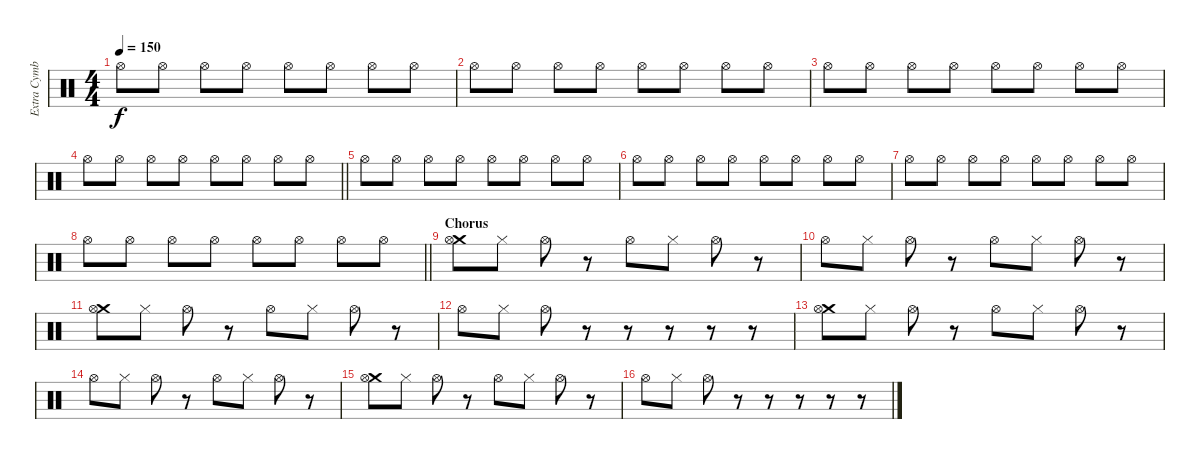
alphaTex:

\track ("Extra Cymbals" "Extra Cymb") {instrument percussion bank 255}
\staff {score}
\articulation defaults
\ts (4 4)
\tempo 150
\clef neutral
\ks c "Hi-Hat (open)".8{dy f} "Hi-Hat (open)".8 "Hi-Hat (open)".8 "Hi-Hat (open)".8 "Hi-Hat (open)".8 "Hi-Hat (open)".8 "Hi-Hat (open)".8 "Hi-Hat (open)".8
|
"Hi-Hat (open)".8 "Hi-Hat (open)".8 "Hi-Hat (open)".8 "Hi-Hat (open)".8 "Hi-Hat (open)".8 "Hi-Hat (open)".8 "Hi-Hat (open)".8 "Hi-Hat (open)".8 |
"Hi-Hat (open)".8 "Hi-Hat (open)".8 "Hi-Hat (open)".8 "Hi-Hat (open)".8 "Hi-Hat (open)".8 "Hi-Hat (open)".8 "Hi-Hat (open)".8 "Hi-Hat (open)".8 |
\barLineRight lightlight "Hi-Hat (open)".8 "Hi-Hat (open)".8 "Hi-Hat (open)".8 "Hi-Hat (open)".8 "Hi-Hat (open)".8 "Hi-Hat (open)".8 "Hi-Hat (open)".8 "Hi-Hat (open)".8
|
"Hi-Hat (open)".8 "Hi-Hat (open)".8 "Hi-Hat (open)".8 "Hi-Hat (open)".8 "Hi-Hat (open)".8 "Hi-Hat (open)".8 "Hi-Hat (open)".8 "Hi-Hat (open)".8 |
"Hi-Hat (open)".8 "Hi-Hat (open)".8 "Hi-Hat (open)".8 "Hi-Hat (open)".8 "Hi-Hat (open)".8 "Hi-Hat (open)".8 "Hi-Hat (open)".8 "Hi-Hat (open)".8 |
"Hi-Hat (open)".8 "Hi-Hat (open)".8 "Hi-Hat (open)".8 "Hi-Hat (open)".8 "Hi-Hat (open)".8 "Hi-Hat (open)".8 "Hi-Hat (open)".8 "Hi-Hat (open)".8 |
\barLineRight lightlight "Hi-Hat (open)".8 "Hi-Hat (open)".8 "Hi-Hat (open)".8 "Hi-Hat (open)".8 "Hi-Hat (open)".8 "Hi-Hat (open)".8 "Hi-Hat (open)".8 "Hi-Hat (open)".8
|
\section ("" "Chorus")
("Crash medium (hit)" "Hi-Hat (open)").8 "Hi-Hat (closed)".8 "Hi-Hat (open)".8 r.8 "Hi-Hat (open)".8 "Hi-Hat (closed)".8 "Hi-Hat (open)".8 r.8 |
"Hi-Hat (open)".8 "Hi-Hat (closed)".8 "Hi-Hat (open)".8 r.8 "Hi-Hat (open)".8 "Hi-Hat (closed)".8 "Hi-Hat (open)".8 r.8 |
("Crash medium (hit)" "Hi-Hat (open)").8 "Hi-Hat (closed)".8 "Hi-Hat (open)".8 r.8 "Hi-Hat (open)".8 "Hi-Hat (closed)".8 "Hi-Hat (open)".8 r.8 |
"Hi-Hat (open)".8 "Hi-Hat (closed)".8 "Hi-Hat (open)".8 r.8 r.8 r.8 r.8 r.8 |
("Crash medium (hit)" "Hi-Hat (open)").8 "Hi-Hat (closed)".8 "Hi-Hat (open)".8 r.8 "Hi-Hat (open)".8 "Hi-Hat (closed)".8 "Hi-Hat (open)".8 r.8 |
"Hi-Hat (open)".8 "Hi-Hat (closed)".8 "Hi-Hat (open)".8 r.8 "Hi-Hat (open)".8 "Hi-Hat (closed)".8 "Hi-Hat (open)".8 r.8 |
("Crash medium (hit)" "Hi-Hat (open)").8 "Hi-Hat (closed)".8 "Hi-Hat (open)".8 r.8 "Hi-Hat (open)".8 "Hi-Hat (closed)".8 "Hi-Hat (open)".8 r.8 |
"Hi-Hat (open)".8 "Hi-Hat (closed)".8 "Hi-Hat (open)".8 r.8 r.8 r.8 r.8 r.8
